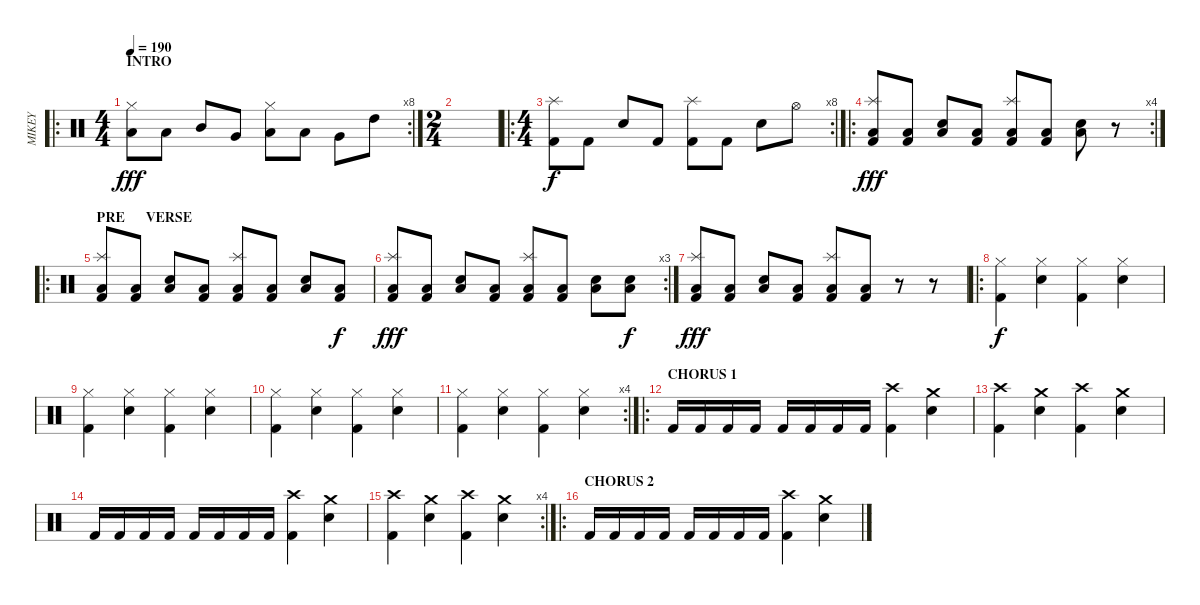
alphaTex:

\track ("MIKEY" "MIKEY") {instrument percussion}
\staff {score}
\articulation defaults
\ro
\rc 8
\ts (4 4)
\section ("" "INTRO")
\tempo 190
\clef neutral
\ks c
("Low Floor Tom (hit)" "Hi-Hat (closed)").8{dy fff} "Low Floor Tom (hit)".8 "Mid Tom (hit)".8 "Very Low Tom (hit)".8 ("Low Floor Tom (hit)" "Hi-Hat (closed)").8 "Low Floor Tom (hit)".8 "Very Low Tom (hit)".8 "High Tom (hit)".8 |
\ts (2 4)
|
\ro
\rc 8
\ts (4 4)
("Splash (hit)" "Kick (hit) 2").8{dy f} "Kick (hit) 2".8 "Snare (hit) 2".8 "Kick (hit) 2".8 ("Splash (hit)" "Kick (hit) 2").8 "Kick (hit) 2".8 "Snare (hit) 2".8 "Hi-Hat (open)".8 |
\ro
\rc 4
("Low Floor Tom (hit)" "Splash (hit)" "Kick (hit) 2").8{dy fff} ("Low Floor Tom (hit)" "Kick (hit) 2").8 ("Low Floor Tom (hit)" "Snare (hit) 2").8 ("Low Floor Tom (hit)" "Kick (hit) 2").8 ("Low Floor Tom (hit)" "Splash (hit)" "Kick (hit) 2").8 ("Low Floor Tom (hit)" "Kick (hit) 2").8 ("Low Floor Tom (hit)" "Snare (hit) 2").8 r.8 |
\ro
\section ("" "PRE      VERSE")
("Low Floor Tom (hit)" "Splash (hit)" "Kick (hit) 2").8 ("Low Floor Tom (hit)" "Kick (hit) 2").8 ("Low Floor Tom (hit)" "Snare (hit) 2").8 ("Low Floor Tom (hit)" "Kick (hit) 2").8 ("Low Floor Tom (hit)" "Splash (hit)" "Kick (hit) 2").8 ("Low Floor Tom (hit)" "Kick (hit) 2").8 ("Low Floor Tom (hit)" "Snare (hit) 2").8 ("Low Floor Tom (hit)" "Kick (hit) 2").8{dy f} |
\rc 3
("Low Floor Tom (hit)" "Splash (hit)" "Kick (hit) 2").8{dy fff} ("Low Floor Tom (hit)" "Kick (hit) 2").8 ("Low Floor Tom (hit)" "Snare (hit) 2").8 ("Low Floor Tom (hit)" "Kick (hit) 2").8 ("Low Floor Tom (hit)" "Splash (hit)" "Kick (hit) 2").8 ("Low Floor Tom (hit)" "Kick (hit) 2").8 ("Low Floor Tom (hit)" "Snare (hit) 2").8 ("Low Floor Tom (hit)" "Snare (hit) 2").8{dy f} |
("Low Floor Tom (hit)" "Splash (hit)" "Kick (hit) 2").8{dy fff} ("Low Floor Tom (hit)" "Kick (hit) 2").8 ("Low Floor Tom (hit)" "Snare (hit) 2").8 ("Low Floor Tom (hit)" "Kick (hit) 2").8 ("Low Floor Tom (hit)" "Splash (hit)" "Kick (hit) 2").8 ("Low Floor Tom (hit)" "Kick (hit) 2").8 r.8 r.8 |
\ro
("Hi-Hat (closed)" "Kick (hit) 2").4{dy f} ("Hi-Hat (closed)" "Snare (hit) 2").4 ("Hi-Hat (closed)" "Kick (hit) 2").4 ("Hi-Hat (closed)" "Snare (hit) 2").4 |
("Hi-Hat (closed)" "Kick (hit) 2").4 ("Hi-Hat (closed)" "Snare (hit) 2").4 ("Hi-Hat (closed)" "Kick (hit) 2").4 ("Hi-Hat (closed)" "Snare (hit) 2").4 |
("Hi-Hat (closed)" "Kick (hit) 2").4 ("Hi-Hat (closed)" "Snare (hit) 2").4 ("Hi-Hat (closed)" "Kick (hit) 2").4 ("Hi-Hat (closed)" "Snare (hit) 2").4 |
\rc 4
("Hi-Hat (closed)" "Kick (hit) 2").4 ("Hi-Hat (closed)" "Snare (hit) 2").4 ("Hi-Hat (closed)" "Kick (hit) 2").4 ("Hi-Hat (closed)" "Snare (hit) 2").4 |
\ro
\section ("" "CHORUS 1")
"Kick (hit) 2".16 "Kick (hit) 2".16 "Kick (hit) 2".16 "Kick (hit) 2".16 "Kick (hit) 2".16 "Kick (hit) 2".16 "Kick (hit) 2".16 "Kick (hit) 2".16 ("Crash high (hit)" "Kick (hit) 2").4 ("Crash medium (hit)" "Snare (hit) 2").4 |
("Crash high (hit)" "Kick (hit) 2").4 ("Crash medium (hit)" "Snare (hit) 2").4 ("Crash high (hit)" "Kick (hit) 2").4 ("Crash medium (hit)" "Snare (hit) 2").4 |
"Kick (hit) 2".16 "Kick (hit) 2".16 "Kick (hit) 2".16 "Kick (hit) 2".16 "Kick (hit) 2".16 "Kick (hit) 2".16 "Kick (hit) 2".16 "Kick (hit) 2".16 ("Crash high (hit)" "Kick (hit) 2").4 ("Crash medium (hit)" "Snare (hit) 2").4 |
\rc 4
("Crash high (hit)" "Kick (hit) 2").4 ("Crash medium (hit)" "Snare (hit) 2").4 ("Crash high (hit)" "Kick (hit) 2").4 ("Crash medium (hit)" "Snare (hit) 2").4 |
\ro
\section ("" "CHORUS 2")
"Kick (hit) 2".16 "Kick (hit) 2".16 "Kick (hit) 2".16 "Kick (hit) 2".16 "Kick (hit) 2".16 "Kick (hit) 2".16 "Kick (hit) 2".16 "Kick (hit) 2".16 ("Crash high (hit)" "Kick (hit) 2").4 ("Crash medium (hit)" "Snare (hit) 2").4
